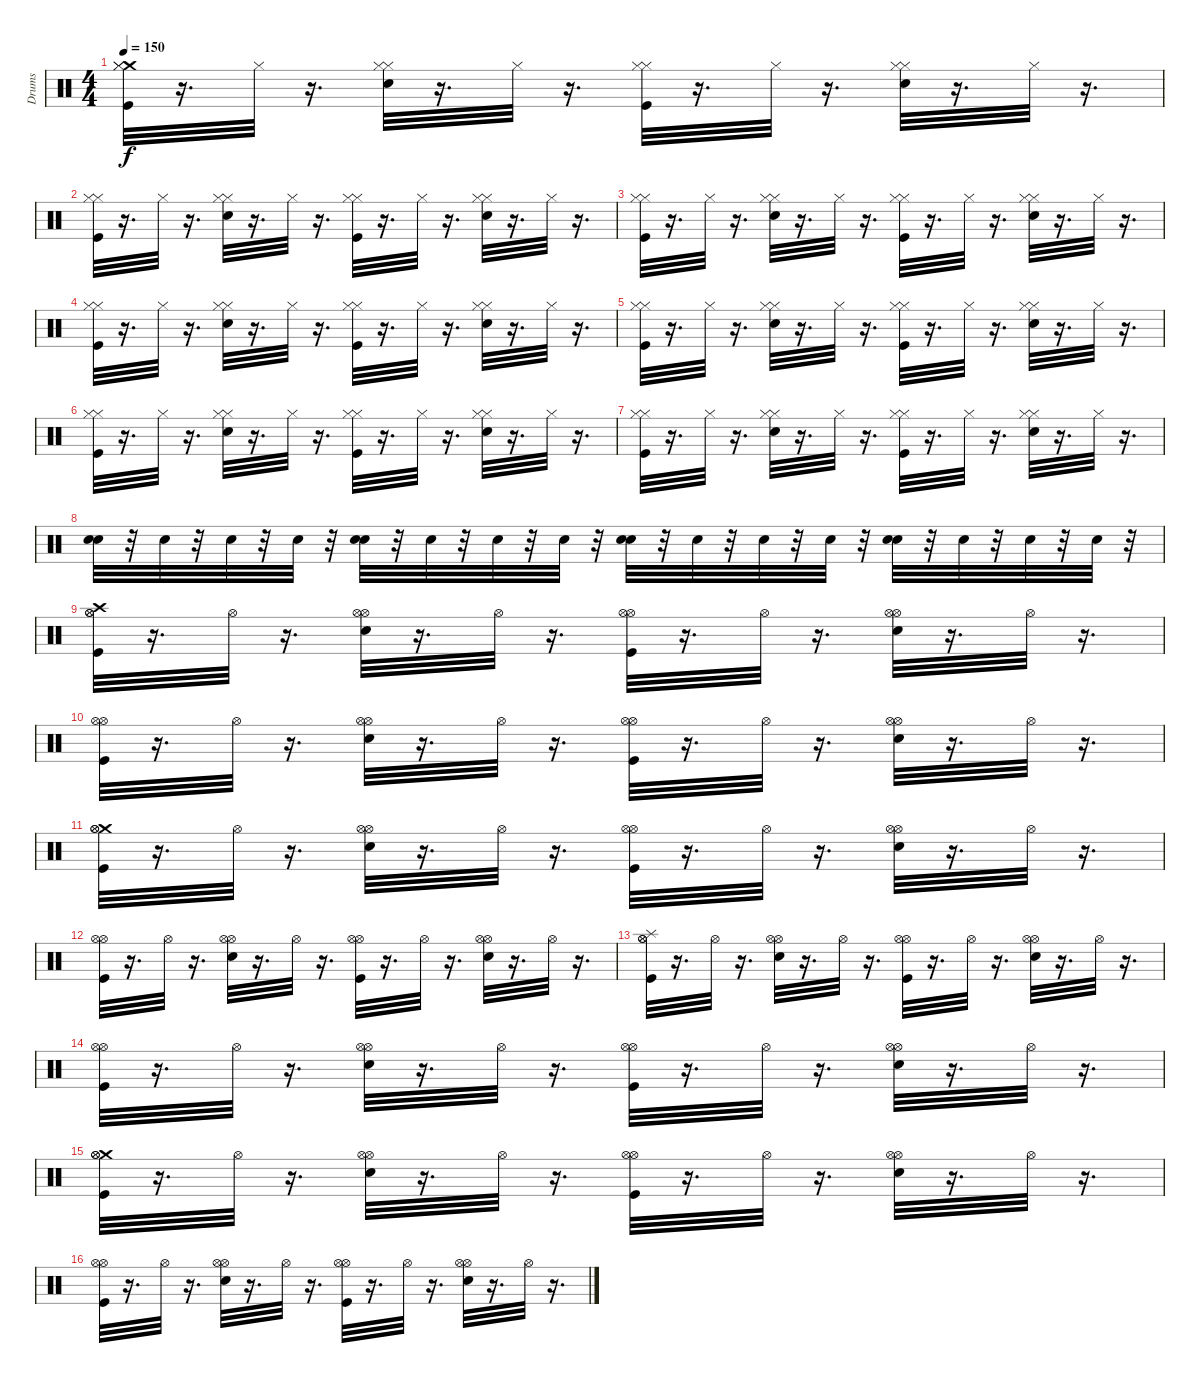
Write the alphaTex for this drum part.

\track ("Drums" "Drums") {instrument percussion}
\staff {score}
\articulation defaults
\ts (4 4)
\tempo 150
\clef neutral
\ks c
("Crash medium (hit)" "Hi-Hat (closed)" "Hi-Hat (closed)" "Kick (hit)").32{dy f} r.16{d} "Hi-Hat (closed)".32 r.16{d} ("Hi-Hat (closed)" "Hi-Hat (closed)" "Snare (hit) 2").32 r.16{d} "Hi-Hat (closed)".32 r.16{d} ("Hi-Hat (closed)" "Hi-Hat (closed)" "Kick (hit)").32 r.16{d} "Hi-Hat (closed)".32 r.16{d} ("Hi-Hat (closed)" "Hi-Hat (closed)" "Snare (hit) 2").32 r.16{d} "Hi-Hat (closed)".32 r.16{d} |
("Hi-Hat (closed)" "Hi-Hat (closed)" "Kick (hit)").32 r.16{d} "Hi-Hat (closed)".32 r.16{d} ("Hi-Hat (closed)" "Hi-Hat (closed)" "Snare (hit) 2").32 r.16{d} "Hi-Hat (closed)".32 r.16{d} ("Hi-Hat (closed)" "Hi-Hat (closed)" "Kick (hit)").32 r.16{d} "Hi-Hat (closed)".32 r.16{d} ("Hi-Hat (closed)" "Hi-Hat (closed)" "Snare (hit) 2").32 r.16{d} "Hi-Hat (closed)".32 r.16{d} |
("Hi-Hat (closed)" "Hi-Hat (closed)" "Kick (hit)").32 r.16{d} "Hi-Hat (closed)".32 r.16{d} ("Hi-Hat (closed)" "Hi-Hat (closed)" "Snare (hit) 2").32 r.16{d} "Hi-Hat (closed)".32 r.16{d} ("Hi-Hat (closed)" "Hi-Hat (closed)" "Kick (hit)").32 r.16{d} "Hi-Hat (closed)".32 r.16{d} ("Hi-Hat (closed)" "Hi-Hat (closed)" "Snare (hit) 2").32 r.16{d} "Hi-Hat (closed)".32 r.16{d} |
("Hi-Hat (closed)" "Hi-Hat (closed)" "Kick (hit)").32 r.16{d} "Hi-Hat (closed)".32 r.16{d} ("Hi-Hat (closed)" "Hi-Hat (closed)" "Snare (hit) 2").32 r.16{d} "Hi-Hat (closed)".32 r.16{d} ("Hi-Hat (closed)" "Hi-Hat (closed)" "Kick (hit)").32 r.16{d} "Hi-Hat (closed)".32 r.16{d} ("Hi-Hat (closed)" "Hi-Hat (closed)" "Snare (hit) 2").32 r.16{d} "Hi-Hat (closed)".32 r.16{d} |
("Hi-Hat (closed)" "Hi-Hat (closed)" "Kick (hit)").32 r.16{d} "Hi-Hat (closed)".32 r.16{d} ("Hi-Hat (closed)" "Hi-Hat (closed)" "Snare (hit) 2").32 r.16{d} "Hi-Hat (closed)".32 r.16{d} ("Hi-Hat (closed)" "Hi-Hat (closed)" "Kick (hit)").32 r.16{d} "Hi-Hat (closed)".32 r.16{d} ("Hi-Hat (closed)" "Hi-Hat (closed)" "Snare (hit) 2").32 r.16{d} "Hi-Hat (closed)".32 r.16{d} |
("Hi-Hat (closed)" "Hi-Hat (closed)" "Kick (hit)").32 r.16{d} "Hi-Hat (closed)".32 r.16{d} ("Hi-Hat (closed)" "Hi-Hat (closed)" "Snare (hit) 2").32 r.16{d} "Hi-Hat (closed)".32 r.16{d} ("Hi-Hat (closed)" "Hi-Hat (closed)" "Kick (hit)").32 r.16{d} "Hi-Hat (closed)".32 r.16{d} ("Hi-Hat (closed)" "Hi-Hat (closed)" "Snare (hit) 2").32 r.16{d} "Hi-Hat (closed)".32 r.16{d} |
("Hi-Hat (closed)" "Hi-Hat (closed)" "Kick (hit)").32 r.16{d} "Hi-Hat (closed)".32 r.16{d} ("Hi-Hat (closed)" "Hi-Hat (closed)" "Snare (hit) 2").32 r.16{d} "Hi-Hat (closed)".32 r.16{d} ("Hi-Hat (closed)" "Hi-Hat (closed)" "Kick (hit)").32 r.16{d} "Hi-Hat (closed)".32 r.16{d} ("Hi-Hat (closed)" "Hi-Hat (closed)" "Snare (hit) 2").32 r.16{d} "Hi-Hat (closed)".32 r.16{d} |
("Snare (hit) 2" "Snare (hit) 2").32 r.32 "Snare (hit) 2".32 r.32 "Snare (hit) 2".32 r.32 "Snare (hit) 2".32 r.32 ("Snare (hit) 2" "Snare (hit) 2").32 r.32 "Snare (hit) 2".32 r.32 "Snare (hit) 2".32 r.32 "Snare (hit) 2".32 r.32 ("Snare (hit) 2" "Snare (hit) 2").32 r.32 "Snare (hit) 2".32 r.32 "Snare (hit) 2".32 r.32 "Snare (hit) 2".32 r.32 ("Snare (hit) 2" "Snare (hit) 2").32 r.32 "Snare (hit) 2".32 r.32 "Snare (hit) 2".32 r.32 "Snare (hit) 2".32 r.32 |
("Crash high (hit)" "Kick (hit)" "Hi-Hat (open)" "Hi-Hat (open)").32 r.16{d} "Hi-Hat (open)".32 r.16{d} ("Hi-Hat (open)" "Snare (hit) 2" "Hi-Hat (open)").32 r.16{d} "Hi-Hat (open)".32 r.16{d} ("Hi-Hat (open)" "Kick (hit)" "Hi-Hat (open)").32 r.16{d} "Hi-Hat (open)".32 r.16{d} ("Hi-Hat (open)" "Hi-Hat (open)" "Snare (hit) 2").32 r.16{d} "Hi-Hat (open)".32 r.16{d} |
("Hi-Hat (open)" "Hi-Hat (open)" "Kick (hit)").32 r.16{d} "Hi-Hat (open)".32 r.16{d} ("Snare (hit) 2" "Hi-Hat (open)" "Hi-Hat (open)").32 r.16{d} "Hi-Hat (open)".32 r.16{d} ("Kick (hit)" "Hi-Hat (open)" "Hi-Hat (open)").32 r.16{d} "Hi-Hat (open)".32 r.16{d} ("Hi-Hat (open)" "Hi-Hat (open)" "Snare (hit) 2").32 r.16{d} "Hi-Hat (open)".32 r.16{d} |
("Crash medium (hit)" "Hi-Hat (open)" "Kick (hit)" "Hi-Hat (open)").32 r.16{d} "Hi-Hat (open)".32 r.16{d} ("Hi-Hat (open)" "Snare (hit) 2" "Hi-Hat (open)").32 r.16{d} "Hi-Hat (open)".32 r.16{d} ("Kick (hit)" "Hi-Hat (open)" "Hi-Hat (open)").32 r.16{d} "Hi-Hat (open)".32 r.16{d} ("Hi-Hat (open)" "Hi-Hat (open)" "Snare (hit) 2").32 r.16{d} "Hi-Hat (open)".32 r.16{d} |
("Kick (hit)" "Hi-Hat (open)" "Hi-Hat (open)").32 r.16{d} "Hi-Hat (open)".32 r.16{d} ("Snare (hit) 2" "Hi-Hat (open)" "Hi-Hat (open)").32 r.16{d} "Hi-Hat (open)".32 r.16{d} ("Kick (hit)" "Hi-Hat (open)" "Hi-Hat (open)").32 r.16{d} "Hi-Hat (open)".32 r.16{d} ("Hi-Hat (open)" "Snare (hit) 2" "Hi-Hat (open)").32 r.16{d} "Hi-Hat (open)".32 r.16{d} |
("Splash (hit)" "Hi-Hat (open)" "Kick (hit)" "Hi-Hat (open)").32 r.16{d} "Hi-Hat (open)".32 r.16{d} ("Hi-Hat (open)" "Hi-Hat (open)" "Snare (hit) 2").32 r.16{d} "Hi-Hat (open)".32 r.16{d} ("Hi-Hat (open)" "Hi-Hat (open)" "Kick (hit)").32 r.16{d} "Hi-Hat (open)".32 r.16{d} ("Snare (hit) 2" "Hi-Hat (open)" "Hi-Hat (open)").32 r.16{d} "Hi-Hat (open)".32 r.16{d} |
("Kick (hit)" "Hi-Hat (open)" "Hi-Hat (open)").32 r.16{d} "Hi-Hat (open)".32 r.16{d} ("Snare (hit) 2" "Hi-Hat (open)" "Hi-Hat (open)").32 r.16{d} "Hi-Hat (open)".32 r.16{d} ("Hi-Hat (open)" "Kick (hit)" "Hi-Hat (open)").32 r.16{d} "Hi-Hat (open)".32 r.16{d} ("Hi-Hat (open)" "Snare (hit) 2" "Hi-Hat (open)").32 r.16{d} "Hi-Hat (open)".32 r.16{d} |
("Crash medium (hit)" "Kick (hit)" "Hi-Hat (open)" "Hi-Hat (open)").32 r.16{d} "Hi-Hat (open)".32 r.16{d} ("Hi-Hat (open)" "Hi-Hat (open)" "Snare (hit) 2").32 r.16{d} "Hi-Hat (open)".32 r.16{d} ("Kick (hit)" "Hi-Hat (open)" "Hi-Hat (open)").32 r.16{d} "Hi-Hat (open)".32 r.16{d} ("Snare (hit) 2" "Hi-Hat (open)" "Hi-Hat (open)").32 r.16{d} "Hi-Hat (open)".32 r.16{d} |
("Kick (hit)" "Hi-Hat (open)" "Hi-Hat (open)").32 r.16{d} "Hi-Hat (open)".32 r.16{d} ("Hi-Hat (open)" "Snare (hit) 2" "Hi-Hat (open)").32 r.16{d} "Hi-Hat (open)".32 r.16{d} ("Kick (hit)" "Hi-Hat (open)" "Hi-Hat (open)").32 r.16{d} "Hi-Hat (open)".32 r.16{d} ("Snare (hit) 2" "Hi-Hat (open)" "Hi-Hat (open)").32 r.16{d} "Hi-Hat (open)".32 r.16{d}
